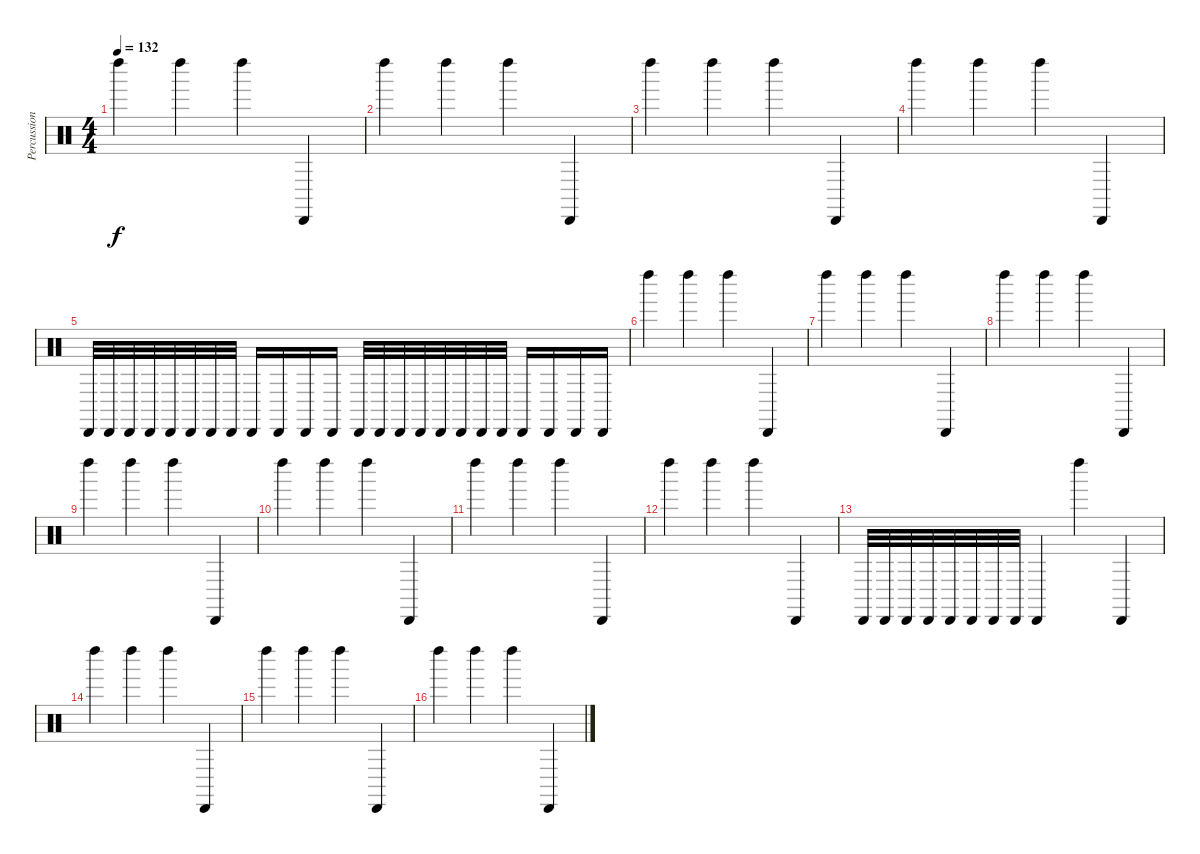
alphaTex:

\track ("Percussion" "Percussion") {instrument percussion}
\staff {score}
\articulation defaults
\ts (4 4)
\tempo 132
\clef neutral
\ks c "Left Maraca (hit)".4{dy f} "Left Maraca (hit)".4 "Left Maraca (hit)".4 "Cabasa (hit)".4
|
"Left Maraca (hit)".4 "Left Maraca (hit)".4 "Left Maraca (hit)".4 "Cabasa (hit)".4 |
"Left Maraca (hit)".4 "Left Maraca (hit)".4 "Left Maraca (hit)".4 "Cabasa (hit)".4 |
"Left Maraca (hit)".4 "Left Maraca (hit)".4 "Left Maraca (hit)".4 "Cabasa (hit)".4 |
"Cabasa (hit)".32 "Cabasa (hit)".32 "Cabasa (hit)".32 "Cabasa (hit)".32 "Cabasa (hit)".32 "Cabasa (hit)".32 "Cabasa (hit)".32 "Cabasa (hit)".32 "Cabasa (hit)".16 "Cabasa (hit)".16 "Cabasa (hit)".16 "Cabasa (hit)".16 "Cabasa (hit)".32 "Cabasa (hit)".32 "Cabasa (hit)".32 "Cabasa (hit)".32 "Cabasa (hit)".32 "Cabasa (hit)".32 "Cabasa (hit)".32 "Cabasa (hit)".32 "Cabasa (hit)".16 "Cabasa (hit)".16 "Cabasa (hit)".16 "Cabasa (hit)".16 |
"Left Maraca (hit)".4 "Left Maraca (hit)".4 "Left Maraca (hit)".4 "Cabasa (hit)".4 |
"Left Maraca (hit)".4 "Left Maraca (hit)".4 "Left Maraca (hit)".4 "Cabasa (hit)".4 |
"Left Maraca (hit)".4 "Left Maraca (hit)".4 "Left Maraca (hit)".4 "Cabasa (hit)".4 |
"Left Maraca (hit)".4 "Left Maraca (hit)".4 "Left Maraca (hit)".4 "Cabasa (hit)".4 |
"Left Maraca (hit)".4 "Left Maraca (hit)".4 "Left Maraca (hit)".4 "Cabasa (hit)".4 |
"Left Maraca (hit)".4 "Left Maraca (hit)".4 "Left Maraca (hit)".4 "Cabasa (hit)".4 |
"Left Maraca (hit)".4 "Left Maraca (hit)".4 "Left Maraca (hit)".4 "Cabasa (hit)".4 |
"Cabasa (hit)".32 "Cabasa (hit)".32 "Cabasa (hit)".32 "Cabasa (hit)".32 "Cabasa (hit)".32 "Cabasa (hit)".32 "Cabasa (hit)".32 "Cabasa (hit)".32 "Cabasa (hit)".4 "Left Maraca (hit)".4 "Cabasa (hit)".4 |
"Left Maraca (hit)".4 "Left Maraca (hit)".4 "Left Maraca (hit)".4 "Cabasa (hit)".4 |
"Left Maraca (hit)".4 "Left Maraca (hit)".4 "Left Maraca (hit)".4 "Cabasa (hit)".4 |
"Left Maraca (hit)".4 "Left Maraca (hit)".4 "Left Maraca (hit)".4 "Cabasa (hit)".4
